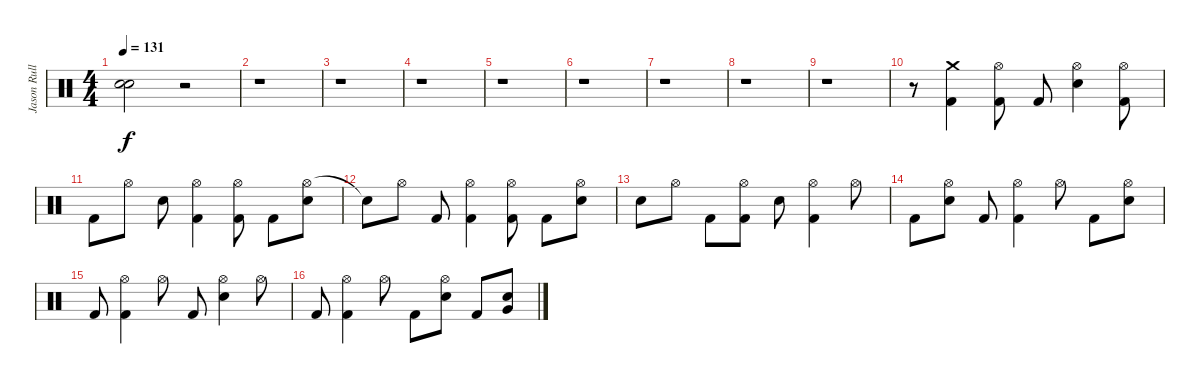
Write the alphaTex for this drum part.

\track ("Jason Rullo (Drums)" "Jason Rull") {instrument percussion}
\staff {score}
\articulation defaults
\ts (4 4)
\tempo 131
\clef neutral
\ks c
("Snare (hit)"{t} "Snare (hit)"{t}).2{dy f} r.2 |
r.1 |
r.1 |
r.1 |
r.1 |
r.1 |
r.1 |
r.1 |
r.1 |
r.8 ("Kick (hit) 2" "Crash medium (hit)").4 ("Hi-Hat (open)" "Kick (hit) 2").8 "Kick (hit) 2".8 ("Hi-Hat (open)" "Electric Snare (hit)").4 ("Hi-Hat (open)" "Kick (hit) 2").8 |
"Kick (hit) 2".8 "Hi-Hat (open)".8 "Electric Snare (hit)".8 ("Hi-Hat (open)" "Kick (hit) 2").4 ("Hi-Hat (open)" "Kick (hit) 2").8 "Kick (hit) 2".8 ("Hi-Hat (open)" "Electric Snare (hit)").8 |
"Snare (hit)"{t}.8 "Hi-Hat (open)".8 "Kick (hit) 2".8 ("Hi-Hat (open)" "Kick (hit) 2").4 ("Hi-Hat (open)" "Kick (hit) 2").8 "Kick (hit) 2".8 ("Hi-Hat (open)" "Electric Snare (hit)").8 |
"Electric Snare (hit)".8 "Hi-Hat (open)".8 "Kick (hit) 2".8 ("Hi-Hat (open)" "Kick (hit) 2").8 "Electric Snare (hit)".8 ("Hi-Hat (open)" "Kick (hit) 2").4 "Hi-Hat (open)".8 |
"Kick (hit) 2".8 ("Hi-Hat (open)" "Electric Snare (hit)").8 "Kick (hit) 2".8 ("Hi-Hat (open)" "Kick (hit) 2").4 "Hi-Hat (open)".8 "Kick (hit) 2".8 ("Hi-Hat (open)" "Electric Snare (hit)").8 |
"Kick (hit) 2".8 ("Hi-Hat (open)" "Kick (hit) 2").4 "Hi-Hat (open)".8 "Kick (hit) 2".8 ("Hi-Hat (open)" "Electric Snare (hit)").4 "Hi-Hat (open)".8 |
"Kick (hit) 2".8 ("Hi-Hat (open)" "Kick (hit) 2").4 "Hi-Hat (open)".8 "Kick (hit) 2".8 ("Hi-Hat (open)" "Electric Snare (hit)").8 "Kick (hit) 2".8 ("Very Low Tom (hit)" "Electric Snare (hit)").8
